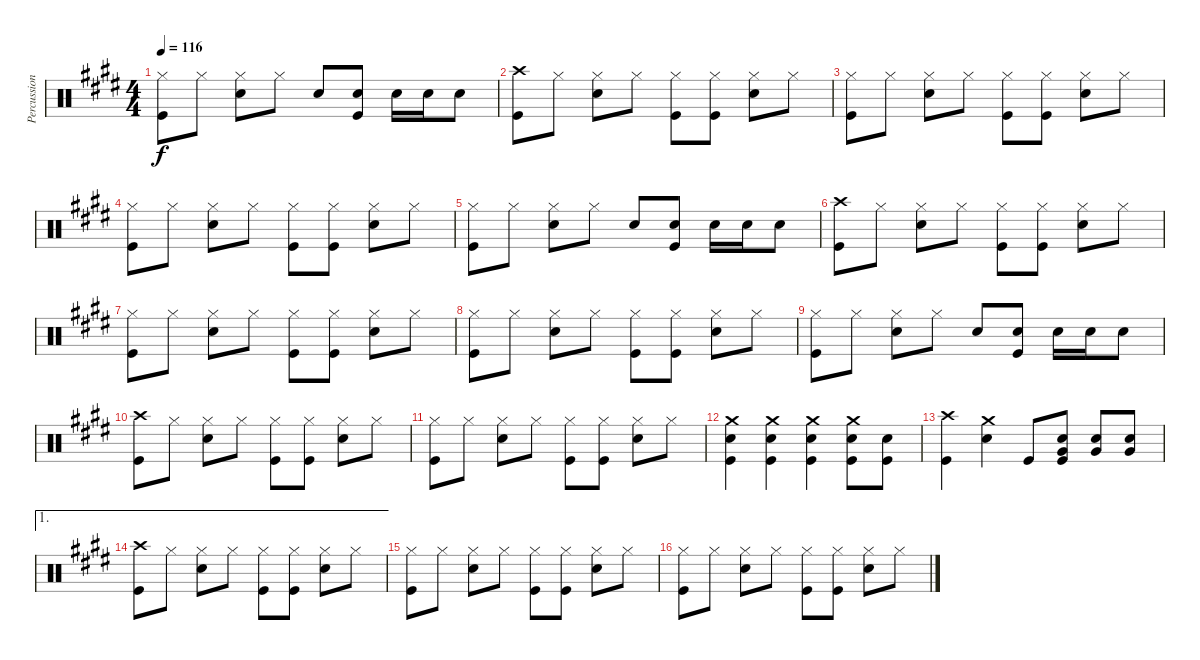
\track ("Percussion" "Percussion") {instrument percussion}
\staff {score}
\articulation defaults
\ts (4 4)
\tempo 116
\clef neutral
\ks e
("Hi-Hat (closed)" "Kick (hit)").8{dy f} "Hi-Hat (closed)".8 ("Hi-Hat (closed)" "Snare (hit) 2").8 "Hi-Hat (closed)".8 "Snare (hit) 2".8 ("Snare (hit) 2" "Kick (hit)").8 "Snare (hit) 2".16 "Snare (hit) 2".16 "Snare (hit) 2".8 |
("Crash high (hit)" "Kick (hit)").8 "Hi-Hat (closed)".8 ("Hi-Hat (closed)" "Snare (hit) 2").8 "Hi-Hat (closed)".8 ("Hi-Hat (closed)" "Kick (hit)").8 ("Hi-Hat (closed)" "Kick (hit)").8 ("Hi-Hat (closed)" "Snare (hit) 2").8 "Hi-Hat (closed)".8 |
("Hi-Hat (closed)" "Kick (hit)").8 "Hi-Hat (closed)".8 ("Hi-Hat (closed)" "Snare (hit) 2").8 "Hi-Hat (closed)".8 ("Hi-Hat (closed)" "Kick (hit)").8 ("Hi-Hat (closed)" "Kick (hit)").8 ("Hi-Hat (closed)" "Snare (hit) 2").8 "Hi-Hat (closed)".8 |
("Hi-Hat (closed)" "Kick (hit)").8 "Hi-Hat (closed)".8 ("Hi-Hat (closed)" "Snare (hit) 2").8 "Hi-Hat (closed)".8 ("Hi-Hat (closed)" "Kick (hit)").8 ("Hi-Hat (closed)" "Kick (hit)").8 ("Hi-Hat (closed)" "Snare (hit) 2").8 "Hi-Hat (closed)".8 |
("Hi-Hat (closed)" "Kick (hit)").8 "Hi-Hat (closed)".8 ("Hi-Hat (closed)" "Snare (hit) 2").8 "Hi-Hat (closed)".8 "Snare (hit) 2".8 ("Snare (hit) 2" "Kick (hit)").8 "Snare (hit) 2".16 "Snare (hit) 2".16 "Snare (hit) 2".8 |
("Crash high (hit)" "Kick (hit)").8 "Hi-Hat (closed)".8 ("Hi-Hat (closed)" "Snare (hit) 2").8 "Hi-Hat (closed)".8 ("Hi-Hat (closed)" "Kick (hit)").8 ("Hi-Hat (closed)" "Kick (hit)").8 ("Hi-Hat (closed)" "Snare (hit) 2").8 "Hi-Hat (closed)".8 |
("Hi-Hat (closed)" "Kick (hit)").8 "Hi-Hat (closed)".8 ("Hi-Hat (closed)" "Snare (hit) 2").8 "Hi-Hat (closed)".8 ("Hi-Hat (closed)" "Kick (hit)").8 ("Hi-Hat (closed)" "Kick (hit)").8 ("Hi-Hat (closed)" "Snare (hit) 2").8 "Hi-Hat (closed)".8 |
("Hi-Hat (closed)" "Kick (hit)").8 "Hi-Hat (closed)".8 ("Hi-Hat (closed)" "Snare (hit) 2").8 "Hi-Hat (closed)".8 ("Hi-Hat (closed)" "Kick (hit)").8 ("Hi-Hat (closed)" "Kick (hit)").8 ("Hi-Hat (closed)" "Snare (hit) 2").8 "Hi-Hat (closed)".8 |
("Hi-Hat (closed)" "Kick (hit)").8 "Hi-Hat (closed)".8 ("Hi-Hat (closed)" "Snare (hit) 2").8 "Hi-Hat (closed)".8 "Snare (hit) 2".8 ("Snare (hit) 2" "Kick (hit)").8 "Snare (hit) 2".16 "Snare (hit) 2".16 "Snare (hit) 2".8 |
("Crash high (hit)" "Kick (hit)").8 "Hi-Hat (closed)".8 ("Hi-Hat (closed)" "Snare (hit) 2").8 "Hi-Hat (closed)".8 ("Hi-Hat (closed)" "Kick (hit)").8 ("Hi-Hat (closed)" "Kick (hit)").8 ("Hi-Hat (closed)" "Snare (hit) 2").8 "Hi-Hat (closed)".8 |
("Hi-Hat (closed)" "Kick (hit)").8 "Hi-Hat (closed)".8 ("Hi-Hat (closed)" "Snare (hit) 2").8 "Hi-Hat (closed)".8 ("Hi-Hat (closed)" "Kick (hit)").8 ("Hi-Hat (closed)" "Kick (hit)").8 ("Hi-Hat (closed)" "Snare (hit) 2").8 "Hi-Hat (closed)".8 |
("Crash medium (hit)" "Snare (hit) 2" "Kick (hit)").4 ("Crash medium (hit)" "Snare (hit) 2" "Kick (hit)").4 ("Crash medium (hit)" "Snare (hit) 2" "Kick (hit)").4 ("Crash medium (hit)" "Snare (hit) 2" "Kick (hit)").8 ("Snare (hit) 2" "Kick (hit)").8 |
("Crash high (hit)" "Kick (hit)").4 ("Crash medium (hit)" "Snare (hit) 2").4 "Kick (hit)".8 ("Very Low Tom (hit)" "Snare (hit) 2" "Kick (hit)").8 ("Very Low Tom (hit)" "Snare (hit) 2").8 ("Very Low Tom (hit)" "Snare (hit) 2").8 |
\ae 1
("Crash high (hit)" "Kick (hit)").8 "Hi-Hat (closed)".8 ("Hi-Hat (closed)" "Snare (hit) 2").8 "Hi-Hat (closed)".8 ("Hi-Hat (closed)" "Kick (hit)").8 ("Hi-Hat (closed)" "Kick (hit)").8 ("Hi-Hat (closed)" "Snare (hit) 2").8 "Hi-Hat (closed)".8 |
("Hi-Hat (closed)" "Kick (hit)").8 "Hi-Hat (closed)".8 ("Hi-Hat (closed)" "Snare (hit) 2").8 "Hi-Hat (closed)".8 ("Hi-Hat (closed)" "Kick (hit)").8 ("Hi-Hat (closed)" "Kick (hit)").8 ("Hi-Hat (closed)" "Snare (hit) 2").8 "Hi-Hat (closed)".8 |
("Hi-Hat (closed)" "Kick (hit)").8 "Hi-Hat (closed)".8 ("Hi-Hat (closed)" "Snare (hit) 2").8 "Hi-Hat (closed)".8 ("Hi-Hat (closed)" "Kick (hit)").8 ("Hi-Hat (closed)" "Kick (hit)").8 ("Hi-Hat (closed)" "Snare (hit) 2").8 "Hi-Hat (closed)".8
